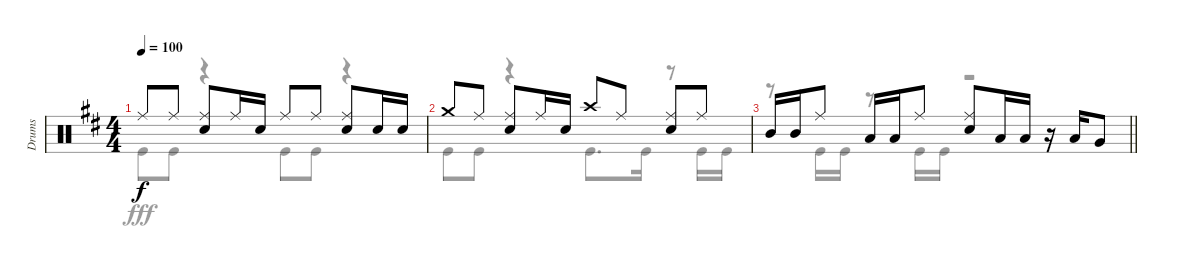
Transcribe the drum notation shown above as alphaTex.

\track ("Drums" "Drums") {instrument percussion}
\staff {score}
\articulation defaults
\voice
\ts (4 4)
\tempo 100
\clef neutral
\ks d "Ride (middle)".8{dy f} "Ride (middle)".8
("Ride (middle)" "Snare (hit) 2").8 "Ride (middle)".16 "Snare (hit) 2".16 "Ride (middle)".8 "Ride (middle)".8 ("Ride (middle)" "Snare (hit) 2").8 "Snare (hit) 2".16 "Snare (hit) 2".16 |
"Crash medium (hit)".8 "Ride (middle)".8 ("Ride (middle)" "Snare (hit) 2").8 "Ride (middle)".16 "Snare (hit) 2".16 "Crash high (hit)".8 "Ride (middle)".8 ("Ride (middle)" "Snare (hit) 2").8 "Ride (middle)".8 |
\barLineRight lightlight "Mid Tom (hit)".16 "Mid Tom (hit)".16 "Ride (middle)".8 "Low Tom (hit)".16 "Low Tom (hit)".16 "Ride (middle)".8
("Ride (middle)" "Snare (hit) 2").8 "Low Tom (hit)".16 "Low Tom (hit)".16 r.16 "Low Tom (hit)".16 "Very Low Tom (hit)".8
\voice
\clef neutral
\ottava regular
\simile none
\ks d "Kick (hit)".8{dy fff} "Kick (hit)".8
r.4 "Kick (hit)".8 "Kick (hit)".8 r.4 |
"Kick (hit)".8 "Kick (hit)".8 r.4 "Kick (hit)".8{d} "Kick (hit)".16 r.8 "Kick (hit)".16 "Kick (hit)".16 |
\barLineRight lightlight
r.8 "Kick (hit)".16 "Kick (hit)".16 r.8 "Kick (hit)".16 "Kick (hit)".16 r.2
